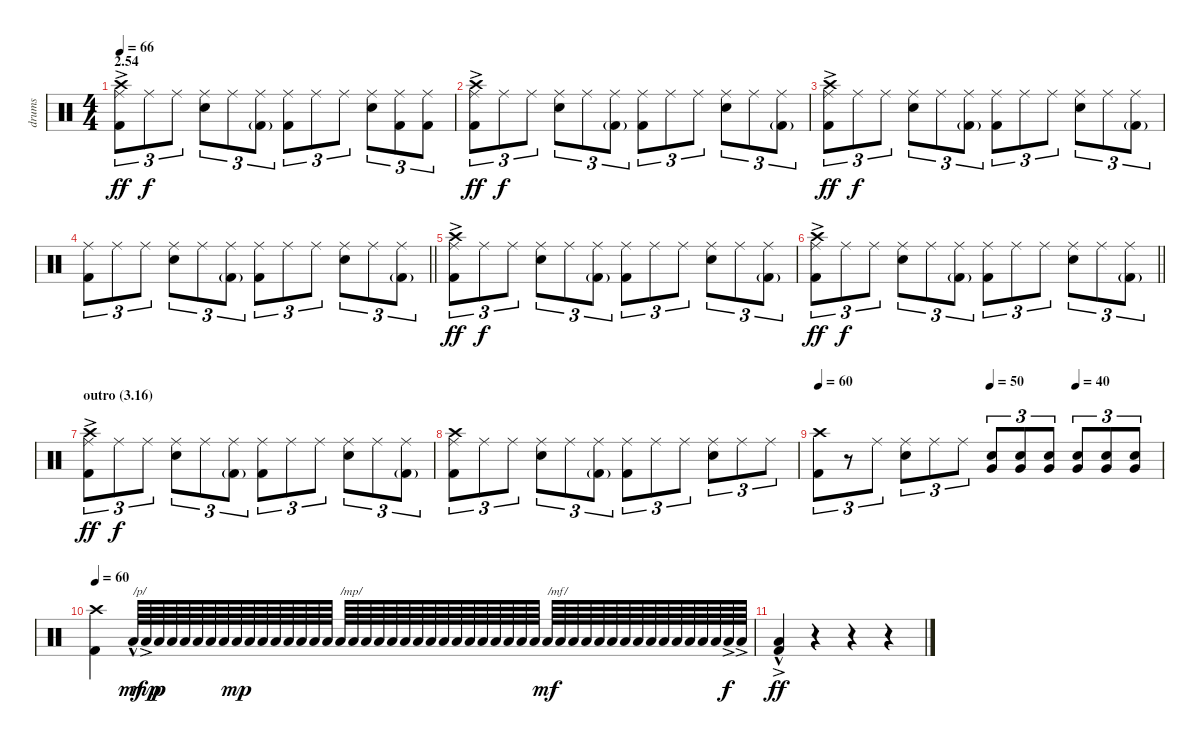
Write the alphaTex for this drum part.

\track ("drums" "drums") {instrument percussion}
\staff {score}
\articulation defaults
\ts (4 4)
\section ("" "2.54")
\tempo 66
\clef neutral
\ks c
("Ride (middle)" "Crash high (hit)"{ac} "Kick (hit) 2").8{tu (3 2) dy ff} "Ride (middle)".8{tu (3 2) dy f} "Ride (middle)".8{tu (3 2)} ("Ride (middle)" "Electric Snare (hit)").8{tu (3 2)} "Ride (middle)".8{tu (3 2)} ("Ride (middle)" "Kick (hit) 2"{g}).8{tu (3 2)} ("Ride (middle)" "Kick (hit) 2").8{tu (3 2)} "Ride (middle)".8{tu (3 2)} "Ride (middle)".8{tu (3 2)} ("Ride (middle)" "Electric Snare (hit)").8{tu (3 2)} ("Ride (middle)" "Kick (hit) 2").8{tu (3 2)} ("Ride (middle)" "Kick (hit) 2").8{tu (3 2)} |
("Ride (middle)" "Crash high (hit)"{ac} "Kick (hit) 2").8{tu (3 2) dy ff} "Ride (middle)".8{tu (3 2) dy f} "Ride (middle)".8{tu (3 2)} ("Ride (middle)" "Electric Snare (hit)").8{tu (3 2)} "Ride (middle)".8{tu (3 2)} ("Ride (middle)" "Kick (hit) 2"{g}).8{tu (3 2)} ("Ride (middle)" "Kick (hit) 2").8{tu (3 2)} "Ride (middle)".8{tu (3 2)} "Ride (middle)".8{tu (3 2)} ("Ride (middle)" "Electric Snare (hit)").8{tu (3 2)} "Ride (middle)".8{tu (3 2)} ("Ride (middle)" "Kick (hit) 2"{g}).8{tu (3 2)} |
("Ride (middle)" "Crash high (hit)"{ac} "Kick (hit) 2").8{tu (3 2) dy ff} "Ride (middle)".8{tu (3 2) dy f} "Ride (middle)".8{tu (3 2)} ("Ride (middle)" "Electric Snare (hit)").8{tu (3 2)} "Ride (middle)".8{tu (3 2)} ("Ride (middle)" "Kick (hit) 2"{g}).8{tu (3 2)} ("Ride (middle)" "Kick (hit) 2").8{tu (3 2)} "Ride (middle)".8{tu (3 2)} "Ride (middle)".8{tu (3 2)} ("Ride (middle)" "Electric Snare (hit)").8{tu (3 2)} "Ride (middle)".8{tu (3 2)} ("Ride (middle)" "Kick (hit) 2"{g}).8{tu (3 2)} |
\barLineRight lightlight
("Ride (middle)" "Kick (hit) 2").8{tu (3 2)} "Ride (middle)".8{tu (3 2)} "Ride (middle)".8{tu (3 2)} ("Ride (middle)" "Electric Snare (hit)").8{tu (3 2)} "Ride (middle)".8{tu (3 2)} ("Ride (middle)" "Kick (hit) 2"{g}).8{tu (3 2)} ("Ride (middle)" "Kick (hit) 2").8{tu (3 2)} "Ride (middle)".8{tu (3 2)} "Ride (middle)".8{tu (3 2)} ("Ride (middle)" "Electric Snare (hit)").8{tu (3 2)} "Ride (middle)".8{tu (3 2)} ("Ride (middle)" "Kick (hit) 2"{g}).8{tu (3 2)} |
("Ride (middle)" "Crash high (hit)"{ac} "Kick (hit) 2").8{tu (3 2) dy ff} "Ride (middle)".8{tu (3 2) dy f} "Ride (middle)".8{tu (3 2)} ("Ride (middle)" "Electric Snare (hit)").8{tu (3 2)} "Ride (middle)".8{tu (3 2)} ("Ride (middle)" "Kick (hit) 2"{g}).8{tu (3 2)} ("Ride (middle)" "Kick (hit) 2").8{tu (3 2)} "Ride (middle)".8{tu (3 2)} "Ride (middle)".8{tu (3 2)} ("Ride (middle)" "Electric Snare (hit)").8{tu (3 2)} "Ride (middle)".8{tu (3 2)} ("Ride (middle)" "Kick (hit) 2"{g}).8{tu (3 2)} |
\barLineRight lightlight
("Ride (middle)" "Crash high (hit)"{ac} "Kick (hit) 2").8{tu (3 2) dy ff} "Ride (middle)".8{tu (3 2) dy f} "Ride (middle)".8{tu (3 2)} ("Ride (middle)" "Electric Snare (hit)").8{tu (3 2)} "Ride (middle)".8{tu (3 2)} ("Ride (middle)" "Kick (hit) 2"{g}).8{tu (3 2)} ("Ride (middle)" "Kick (hit) 2").8{tu (3 2)} "Ride (middle)".8{tu (3 2)} "Ride (middle)".8{tu (3 2)} ("Ride (middle)" "Electric Snare (hit)").8{tu (3 2)} "Ride (middle)".8{tu (3 2)} ("Ride (middle)" "Kick (hit) 2"{g}).8{tu (3 2)} |
\section ("" "outro (3.16)")
("Ride (middle)" "Crash high (hit)"{ac} "Kick (hit) 2").8{tu (3 2) dy ff} "Ride (middle)".8{tu (3 2) dy f} "Ride (middle)".8{tu (3 2)} ("Ride (middle)" "Electric Snare (hit)").8{tu (3 2)} "Ride (middle)".8{tu (3 2)} ("Ride (middle)" "Kick (hit) 2"{g}).8{tu (3 2)} ("Ride (middle)" "Kick (hit) 2").8{tu (3 2)} "Ride (middle)".8{tu (3 2)} "Ride (middle)".8{tu (3 2)} ("Ride (middle)" "Electric Snare (hit)").8{tu (3 2)} "Ride (middle)".8{tu (3 2)} ("Ride (middle)" "Kick (hit) 2"{g}).8{tu (3 2)} |
("Ride (middle)" "Crash high (hit)" "Kick (hit) 2").8{tu (3 2)} "Ride (middle)".8{tu (3 2)} "Ride (middle)".8{tu (3 2)} ("Ride (middle)" "Electric Snare (hit)").8{tu (3 2)} "Ride (middle)".8{tu (3 2)} ("Ride (middle)" "Kick (hit) 2"{g}).8{tu (3 2)} ("Ride (middle)" "Kick (hit) 2").8{tu (3 2)} "Ride (middle)".8{tu (3 2)} "Ride (middle)".8{tu (3 2)} ("Ride (middle)" "Electric Snare (hit)").8{tu (3 2)} "Ride (middle)".8{tu (3 2)} "Ride (middle)".8{tu (3 2)} |
\tempo 60
\tempo (50 0.5)
\tempo (40 0.75)
("Crash high (hit)" "Kick (hit) 2").8{tu (3 2)} r.8{tu (3 2)} "Ride (middle)".8{tu (3 2)} ("Ride (middle)" "Electric Snare (hit)").8{tu (3 2)} "Ride (middle)".8{tu (3 2)} "Ride (middle)".8{tu (3 2)} ("Very Low Tom (hit)" "Electric Snare (hit)").8{tu (3 2)} ("Very Low Tom (hit)" "Electric Snare (hit)").8{tu (3 2)} ("Very Low Tom (hit)" "Electric Snare (hit)").8{tu (3 2)} ("Very Low Tom (hit)" "Electric Snare (hit)").8{tu (3 2)} ("Very Low Tom (hit)" "Electric Snare (hit)").8{tu (3 2)} ("Very Low Tom (hit)" "Electric Snare (hit)").8{tu (3 2)} |
\tempo 60
("Crash high (hit)" "Kick (hit) 2").4 "Low Floor Tom (hit)"{hac}.64{txt "/p/" dy mf} "Low Floor Tom (hit)"{ac}.64{dy mp} "Low Floor Tom (hit)".64{dy p} "Low Floor Tom (hit)".64 "Low Floor Tom (hit)".64 "Low Floor Tom (hit)".64 "Low Floor Tom (hit)".64 "Low Floor Tom (hit)".64 "Low Floor Tom (hit)".64{dy mp} "Low Floor Tom (hit)".64 "Low Floor Tom (hit)".64 "Low Floor Tom (hit)".64 "Low Floor Tom (hit)".64 "Low Floor Tom (hit)".64 "Low Floor Tom (hit)".64 "Low Floor Tom (hit)".64 "Low Floor Tom (hit)".64{txt "/mp/"} "Low Floor Tom (hit)".64 "Low Floor Tom (hit)".64 "Low Floor Tom (hit)".64 "Low Floor Tom (hit)".64 "Low Floor Tom (hit)".64 "Low Floor Tom (hit)".64 "Low Floor Tom (hit)".64 "Low Floor Tom (hit)".64 "Low Floor Tom (hit)".64 "Low Floor Tom (hit)".64 "Low Floor Tom (hit)".64 "Low Floor Tom (hit)".64 "Low Floor Tom (hit)".64 "Low Floor Tom (hit)".64 "Low Floor Tom (hit)".64 "Low Floor Tom (hit)".64{txt "/mf/" dy mf} "Low Floor Tom (hit)".64 "Low Floor Tom (hit)".64 "Low Floor Tom (hit)".64 "Low Floor Tom (hit)".64 "Low Floor Tom (hit)".64 "Low Floor Tom (hit)".64 "Low Floor Tom (hit)".64 "Low Floor Tom (hit)".64 "Low Floor Tom (hit)".64 "Low Floor Tom (hit)".64 "Low Floor Tom (hit)".64 "Low Floor Tom (hit)".64 "Low Floor Tom (hit)".64 "Low Floor Tom (hit)"{ac}.64{dy f} "Low Floor Tom (hit)"{ac}.64 |
("Low Floor Tom (hit)"{hac} "Kick (hit) 2"{ac}).4{dy ff} r.4 r.4 r.4
